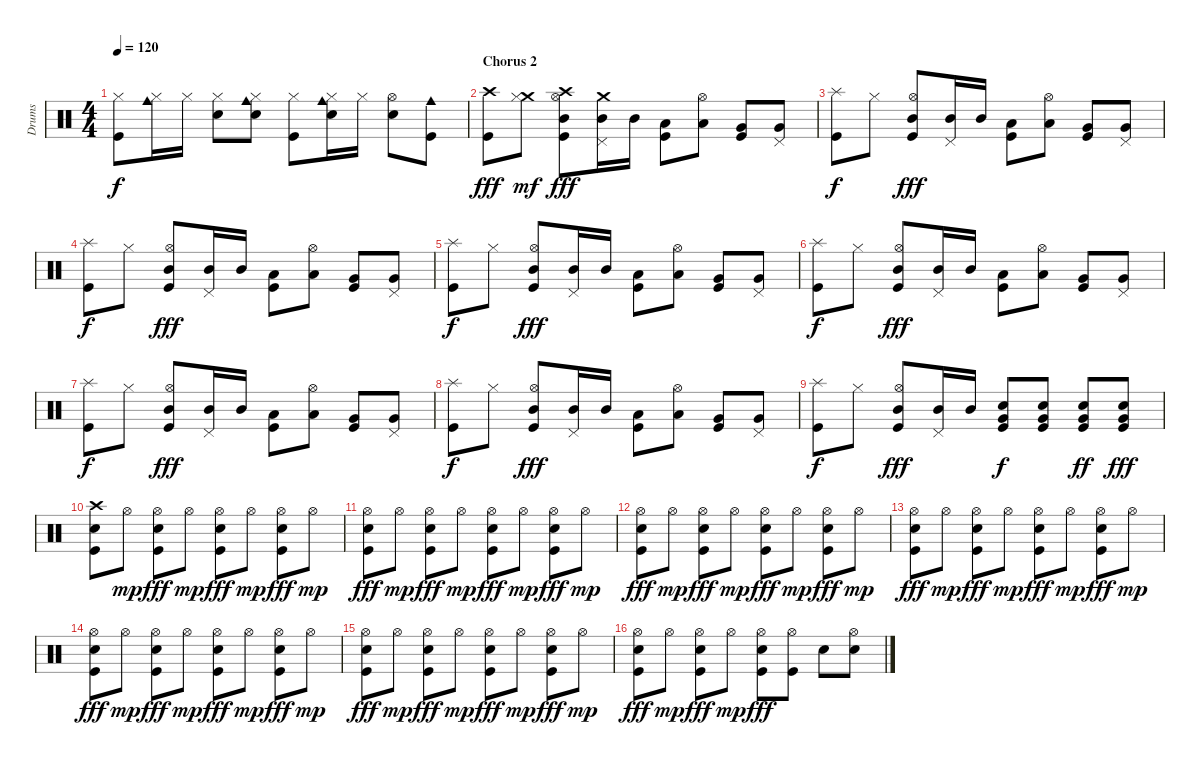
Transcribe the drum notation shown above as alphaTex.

\track ("Drums" "Drums") {instrument percussion}
\staff {score}
\articulation defaults
\ts (4 4)
\tempo 120
\clef neutral
\ks c
("Hi-Hat (closed)" "Kick (hit)").8{dy f} ("Cowbell medium (hit)" "Hi-Hat (closed)").16 "Hi-Hat (closed)".16 ("Hi-Hat (closed)" "Electric Snare (hit)").8 ("Cowbell medium (hit)" "Hi-Hat (closed)" "Electric Snare (hit)").8 ("Hi-Hat (closed)" "Kick (hit)").8 ("Cowbell medium (hit)" "Hi-Hat (closed)" "Electric Snare (hit)").16 "Hi-Hat (closed)".16 ("Hi-Hat (open)" "Electric Snare (hit)").8 ("Cowbell medium (hit)" "Kick (hit)").8 |
\section ("" "Chorus 2")
("Crash high (hit)" "Kick (hit)").8{dy fff volume 10} ("Crash medium (hit)" "Hi-Hat (closed)").8{dy mf} ("Crash high (hit)" "Hi-Hat (open)" "Mid Tom (hit)" "Kick (hit)").8{dy fff} ("Crash medium (hit)" "Pedal Hi-Hat (hit)" "Mid Tom (hit)").16 "Mid Tom (hit)".16 ("Low Tom (hit)" "Kick (hit)").8 ("Hi-Hat (open)" "Low Tom (hit)").8 ("Very Low Tom (hit)" "Kick (hit)").8 ("Pedal Hi-Hat (hit)" "Very Low Tom (hit)").8 |
("Splash (hit)" "Kick (hit)").8{dy f} "Hi-Hat (closed)".8 ("Hi-Hat (open)" "Mid Tom (hit)" "Kick (hit)").8{dy fff} ("Pedal Hi-Hat (hit)" "Mid Tom (hit)").16 "Mid Tom (hit)".16 ("Low Tom (hit)" "Kick (hit)").8 ("Hi-Hat (open)" "Low Tom (hit)").8 ("Very Low Tom (hit)" "Kick (hit)").8 ("Pedal Hi-Hat (hit)" "Very Low Tom (hit)").8 |
("Splash (hit)" "Kick (hit)").8{dy f} "Hi-Hat (closed)".8 ("Hi-Hat (open)" "Mid Tom (hit)" "Kick (hit)").8{dy fff} ("Pedal Hi-Hat (hit)" "Mid Tom (hit)").16 "Mid Tom (hit)".16 ("Low Tom (hit)" "Kick (hit)").8 ("Hi-Hat (open)" "Low Tom (hit)").8 ("Very Low Tom (hit)" "Kick (hit)").8 ("Pedal Hi-Hat (hit)" "Very Low Tom (hit)").8 |
("Splash (hit)" "Kick (hit)").8{dy f} "Hi-Hat (closed)".8 ("Hi-Hat (open)" "Mid Tom (hit)" "Kick (hit)").8{dy fff} ("Pedal Hi-Hat (hit)" "Mid Tom (hit)").16 "Mid Tom (hit)".16 ("Low Tom (hit)" "Kick (hit)").8 ("Hi-Hat (open)" "Low Tom (hit)").8 ("Very Low Tom (hit)" "Kick (hit)").8 ("Pedal Hi-Hat (hit)" "Very Low Tom (hit)").8 |
("Splash (hit)" "Kick (hit)").8{dy f} "Hi-Hat (closed)".8 ("Hi-Hat (open)" "Mid Tom (hit)" "Kick (hit)").8{dy fff} ("Pedal Hi-Hat (hit)" "Mid Tom (hit)").16 "Mid Tom (hit)".16 ("Low Tom (hit)" "Kick (hit)").8 ("Hi-Hat (open)" "Low Tom (hit)").8 ("Very Low Tom (hit)" "Kick (hit)").8 ("Pedal Hi-Hat (hit)" "Very Low Tom (hit)").8 |
("Splash (hit)" "Kick (hit)").8{dy f} "Hi-Hat (closed)".8 ("Hi-Hat (open)" "Mid Tom (hit)" "Kick (hit)").8{dy fff} ("Pedal Hi-Hat (hit)" "Mid Tom (hit)").16 "Mid Tom (hit)".16 ("Low Tom (hit)" "Kick (hit)").8 ("Hi-Hat (open)" "Low Tom (hit)").8 ("Very Low Tom (hit)" "Kick (hit)").8 ("Pedal Hi-Hat (hit)" "Very Low Tom (hit)").8 |
("Splash (hit)" "Kick (hit)").8{dy f} "Hi-Hat (closed)".8 ("Hi-Hat (open)" "Mid Tom (hit)" "Kick (hit)").8{dy fff} ("Pedal Hi-Hat (hit)" "Mid Tom (hit)").16 "Mid Tom (hit)".16 ("Low Tom (hit)" "Kick (hit)").8 ("Hi-Hat (open)" "Low Tom (hit)").8 ("Very Low Tom (hit)" "Kick (hit)").8 ("Pedal Hi-Hat (hit)" "Very Low Tom (hit)").8 |
("Splash (hit)" "Kick (hit)").8{dy f} "Hi-Hat (closed)".8 ("Hi-Hat (open)" "Mid Tom (hit)" "Kick (hit)").8{dy fff} ("Pedal Hi-Hat (hit)" "Mid Tom (hit)").16 "Mid Tom (hit)".16 ("Very Low Tom (hit)" "Electric Snare (hit)" "Kick (hit)").8{dy f volume 13} ("Very Low Tom (hit)" "Electric Snare (hit)" "Kick (hit)").8 ("Very Low Tom (hit)" "Electric Snare (hit)" "Kick (hit)").8{dy ff} ("Very Low Tom (hit)" "Electric Snare (hit)" "Kick (hit)").8{dy fff} |
("Crash high (hit)" "Electric Snare (hit)" "Kick (hit)").8 "Hi-Hat (open)".8{dy mp} ("Hi-Hat (open)" "Electric Snare (hit)" "Kick (hit)").8{dy fff} "Hi-Hat (open)".8{dy mp} ("Hi-Hat (open)" "Electric Snare (hit)" "Kick (hit)").8{dy fff} "Hi-Hat (open)".8{dy mp} ("Hi-Hat (open)" "Electric Snare (hit)" "Kick (hit)").8{dy fff} "Hi-Hat (open)".8{dy mp} |
("Hi-Hat (open)" "Electric Snare (hit)" "Kick (hit)").8{dy fff} "Hi-Hat (open)".8{dy mp} ("Hi-Hat (open)" "Electric Snare (hit)" "Kick (hit)").8{dy fff} "Hi-Hat (open)".8{dy mp} ("Hi-Hat (open)" "Electric Snare (hit)" "Kick (hit)").8{dy fff} "Hi-Hat (open)".8{dy mp} ("Hi-Hat (open)" "Electric Snare (hit)" "Kick (hit)").8{dy fff} "Hi-Hat (open)".8{dy mp} |
("Hi-Hat (open)" "Electric Snare (hit)" "Kick (hit)").8{dy fff} "Hi-Hat (open)".8{dy mp} ("Hi-Hat (open)" "Electric Snare (hit)" "Kick (hit)").8{dy fff} "Hi-Hat (open)".8{dy mp} ("Hi-Hat (open)" "Electric Snare (hit)" "Kick (hit)").8{dy fff} "Hi-Hat (open)".8{dy mp} ("Hi-Hat (open)" "Electric Snare (hit)" "Kick (hit)").8{dy fff} "Hi-Hat (open)".8{dy mp} |
("Hi-Hat (open)" "Electric Snare (hit)" "Kick (hit)").8{dy fff} "Hi-Hat (open)".8{dy mp} ("Hi-Hat (open)" "Electric Snare (hit)" "Kick (hit)").8{dy fff} "Hi-Hat (open)".8{dy mp} ("Hi-Hat (open)" "Electric Snare (hit)" "Kick (hit)").8{dy fff} "Hi-Hat (open)".8{dy mp} ("Hi-Hat (open)" "Electric Snare (hit)" "Kick (hit)").8{dy fff} "Hi-Hat (open)".8{dy mp} |
("Hi-Hat (open)" "Electric Snare (hit)" "Kick (hit)").8{dy fff} "Hi-Hat (open)".8{dy mp} ("Hi-Hat (open)" "Electric Snare (hit)" "Kick (hit)").8{dy fff} "Hi-Hat (open)".8{dy mp} ("Hi-Hat (open)" "Electric Snare (hit)" "Kick (hit)").8{dy fff} "Hi-Hat (open)".8{dy mp} ("Hi-Hat (open)" "Electric Snare (hit)" "Kick (hit)").8{dy fff} "Hi-Hat (open)".8{dy mp} |
("Hi-Hat (open)" "Electric Snare (hit)" "Kick (hit)").8{dy fff} "Hi-Hat (open)".8{dy mp} ("Hi-Hat (open)" "Electric Snare (hit)" "Kick (hit)").8{dy fff} "Hi-Hat (open)".8{dy mp} ("Hi-Hat (open)" "Electric Snare (hit)" "Kick (hit)").8{dy fff} "Hi-Hat (open)".8{dy mp} ("Hi-Hat (open)" "Electric Snare (hit)" "Kick (hit)").8{dy fff} "Hi-Hat (open)".8{dy mp} |
("Hi-Hat (open)" "Electric Snare (hit)" "Kick (hit)").8{dy fff} "Hi-Hat (open)".8{dy mp} ("Hi-Hat (open)" "Electric Snare (hit)" "Kick (hit)").8{dy fff} "Hi-Hat (open)".8{dy mp} ("Hi-Hat (open)" "Electric Snare (hit)" "Kick (hit)").8{dy fff} ("Hi-Hat (open)" "Kick (hit)").8 "Electric Snare (hit)".8 ("Hi-Hat (open)" "Electric Snare (hit)").8
